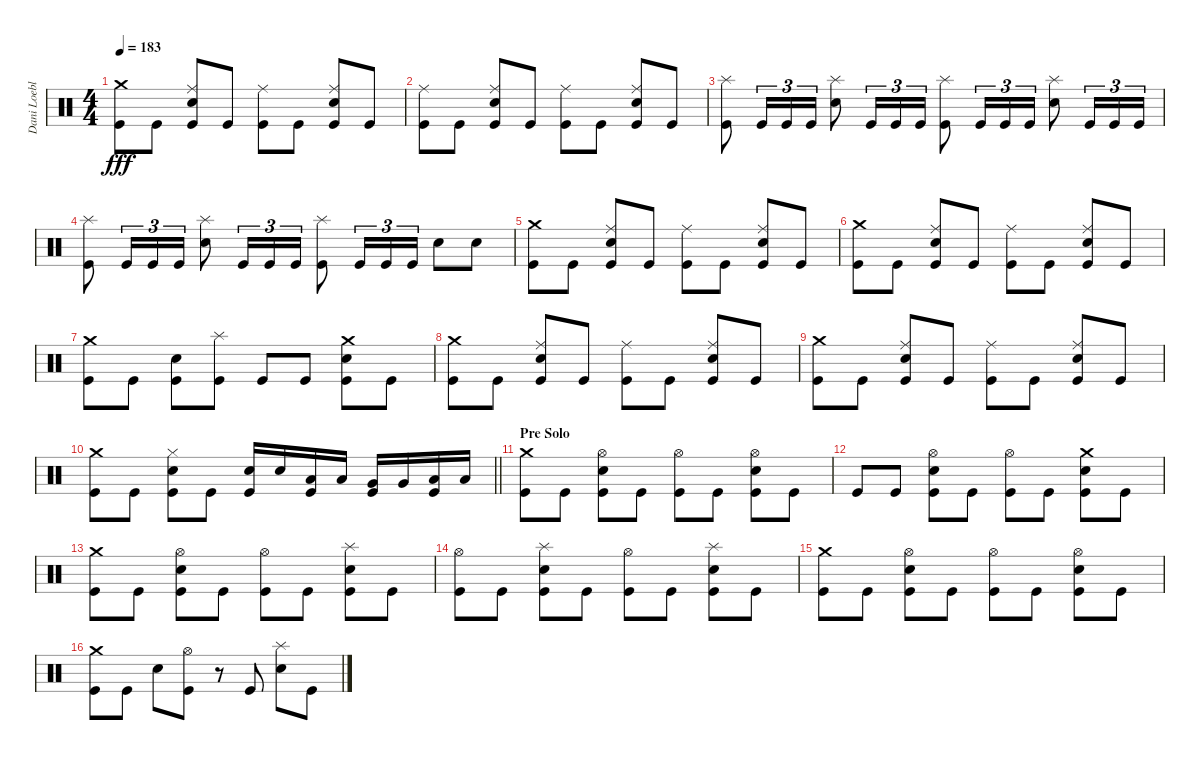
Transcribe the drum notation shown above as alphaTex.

\track ("Dani Loeble" "Dani Loebl") {instrument percussion}
\staff {score}
\articulation defaults
\ts (4 4)
\tempo 183
\clef neutral
\ks c
("Crash medium (hit)" "Kick (hit)").8{dy fff} "Kick (hit)".8 ("Ride (middle)" "Electric Snare (hit)" "Kick (hit)").8 "Kick (hit)".8 ("Ride (middle)" "Kick (hit)").8 "Kick (hit)".8 ("Ride (middle)" "Electric Snare (hit)" "Kick (hit)").8 "Kick (hit)".8 |
("Ride (middle)" "Kick (hit)").8 "Kick (hit)".8 ("Ride (middle)" "Electric Snare (hit)" "Kick (hit)").8 "Kick (hit)".8 ("Ride (middle)" "Kick (hit)").8 "Kick (hit)".8 ("Ride (middle)" "Electric Snare (hit)" "Kick (hit)").8 "Kick (hit)".8 |
("Splash (hit)" "Kick (hit)").8 "Kick (hit)".16{tu (3 2)} "Kick (hit)".16{tu (3 2)} "Kick (hit)".16{tu (3 2)} ("Splash (hit)" "Electric Snare (hit)").8 "Kick (hit)".16{tu (3 2)} "Kick (hit)".16{tu (3 2)} "Kick (hit)".16{tu (3 2)} ("Splash (hit)" "Kick (hit)").8 "Kick (hit)".16{tu (3 2)} "Kick (hit)".16{tu (3 2)} "Kick (hit)".16{tu (3 2)} ("Splash (hit)" "Electric Snare (hit)").8 "Kick (hit)".16{tu (3 2)} "Kick (hit)".16{tu (3 2)} "Kick (hit)".16{tu (3 2)} |
("Splash (hit)" "Kick (hit)").8 "Kick (hit)".16{tu (3 2)} "Kick (hit)".16{tu (3 2)} "Kick (hit)".16{tu (3 2)} ("Splash (hit)" "Electric Snare (hit)").8 "Kick (hit)".16{tu (3 2)} "Kick (hit)".16{tu (3 2)} "Kick (hit)".16{tu (3 2)} ("Splash (hit)" "Kick (hit)").8 "Kick (hit)".16{tu (3 2)} "Kick (hit)".16{tu (3 2)} "Kick (hit)".16{tu (3 2)} "Electric Snare (hit)".8 "Electric Snare (hit)".8 |
("Crash medium (hit)" "Kick (hit)").8 "Kick (hit)".8 ("Ride (middle)" "Electric Snare (hit)" "Kick (hit)").8 "Kick (hit)".8 ("Ride (middle)" "Kick (hit)").8 "Kick (hit)".8 ("Ride (middle)" "Electric Snare (hit)" "Kick (hit)").8 "Kick (hit)".8 |
("Crash medium (hit)" "Kick (hit)").8 "Kick (hit)".8 ("Ride (middle)" "Electric Snare (hit)" "Kick (hit)").8 "Kick (hit)".8 ("Ride (middle)" "Kick (hit)").8 "Kick (hit)".8 ("Ride (middle)" "Electric Snare (hit)" "Kick (hit)").8 "Kick (hit)".8 |
("Crash medium (hit)" "Kick (hit)").8 "Kick (hit)".8 ("Electric Snare (hit)" "Kick (hit)").8 ("Splash (hit)" "Kick (hit)").8 "Kick (hit)".8 "Kick (hit)".8 ("Crash medium (hit)" "Electric Snare (hit)" "Kick (hit)").8 "Kick (hit)".8 |
("Crash medium (hit)" "Kick (hit)").8 "Kick (hit)".8 ("Ride (middle)" "Electric Snare (hit)" "Kick (hit)").8 "Kick (hit)".8 ("Ride (middle)" "Kick (hit)").8 "Kick (hit)".8 ("Ride (middle)" "Electric Snare (hit)" "Kick (hit)").8 "Kick (hit)".8 |
("Crash medium (hit)" "Kick (hit)").8 "Kick (hit)".8 ("Ride (middle)" "Electric Snare (hit)" "Kick (hit)").8 "Kick (hit)".8 ("Ride (middle)" "Kick (hit)").8 "Kick (hit)".8 ("Ride (middle)" "Electric Snare (hit)" "Kick (hit)").8 "Kick (hit)".8 |
\barLineRight lightlight
("Crash medium (hit)" "Kick (hit)").8 "Kick (hit)".8 ("Hi-Hat (closed)" "Electric Snare (hit)" "Kick (hit)").8 "Kick (hit)".8 ("Electric Snare (hit)" "Kick (hit)").16 "Electric Snare (hit)".16 ("Low Tom (hit)" "Kick (hit)").16 "Low Tom (hit)".16 ("Very Low Tom (hit)" "Kick (hit)").16 "Very Low Tom (hit)".16 ("Low Floor Tom (hit)" "Kick (hit)").16 "Low Floor Tom (hit)".16 |
\section ("" "Pre Solo")
("Crash medium (hit)" "Kick (hit)").8 "Kick (hit)".8 ("Hi-Hat (open)" "Electric Snare (hit)" "Kick (hit)").8 "Kick (hit)".8 ("Hi-Hat (open)" "Kick (hit)").8 "Kick (hit)".8 ("Hi-Hat (open)" "Electric Snare (hit)" "Kick (hit)").8 "Kick (hit)".8 |
"Kick (hit)".8 "Kick (hit)".8 ("Hi-Hat (open)" "Electric Snare (hit)" "Kick (hit)").8 "Kick (hit)".8 ("Hi-Hat (open)" "Kick (hit)").8 "Kick (hit)".8 ("Crash medium (hit)" "Electric Snare (hit)" "Kick (hit)").8 "Kick (hit)".8 |
("Crash medium (hit)" "Kick (hit)").8 "Kick (hit)".8 ("Hi-Hat (open)" "Electric Snare (hit)" "Kick (hit)").8 "Kick (hit)".8 ("Hi-Hat (open)" "Kick (hit)").8 "Kick (hit)".8 ("Splash (hit)" "Electric Snare (hit)" "Kick (hit)").8 "Kick (hit)".8 |
("Hi-Hat (open)" "Kick (hit)").8 "Kick (hit)".8 ("Splash (hit)" "Electric Snare (hit)" "Kick (hit)").8 "Kick (hit)".8 ("Hi-Hat (open)" "Kick (hit)").8 "Kick (hit)".8 ("Splash (hit)" "Electric Snare (hit)" "Kick (hit)").8 "Kick (hit)".8 |
("Crash medium (hit)" "Kick (hit)").8 "Kick (hit)".8 ("Hi-Hat (open)" "Electric Snare (hit)" "Kick (hit)").8 "Kick (hit)".8 ("Hi-Hat (open)" "Kick (hit)").8 "Kick (hit)".8 ("Hi-Hat (open)" "Electric Snare (hit)" "Kick (hit)").8 "Kick (hit)".8 |
("Crash medium (hit)" "Kick (hit)").8 "Kick (hit)".8 "Electric Snare (hit)".8 ("Hi-Hat (open)" "Kick (hit)").8 r.8 "Kick (hit)".8 ("Splash (hit)" "Electric Snare (hit)").8 "Kick (hit)".8
